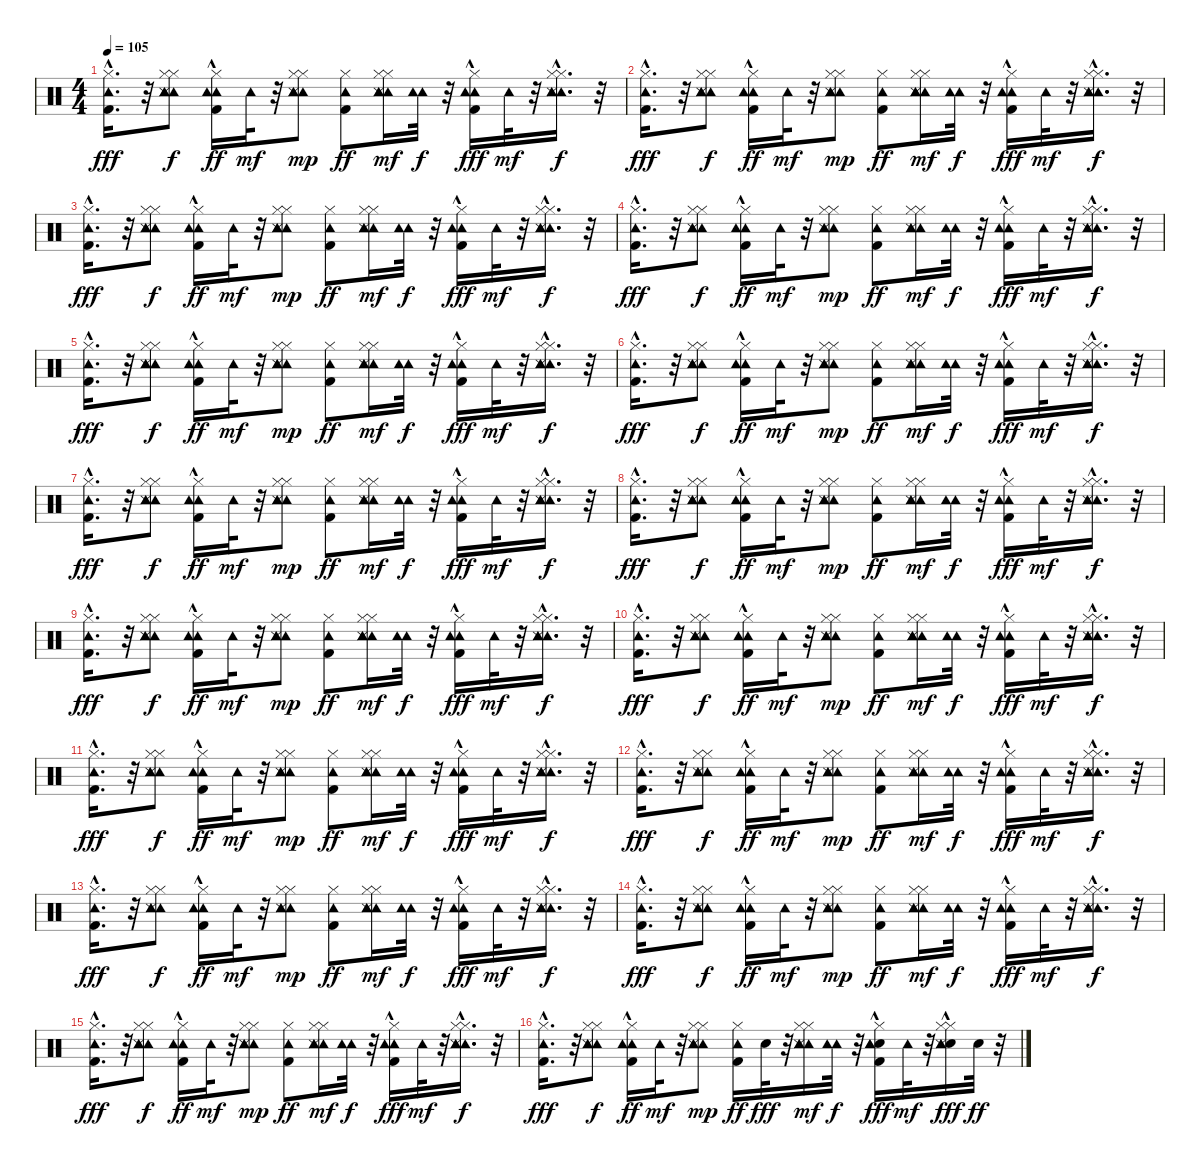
\track "" {instrument percussion}
\staff {score}
\articulation defaults
\ts (4 4)
\tempo 105
\clef neutral
\ks c
("Kick (hit) 2"{hac} "Hi-Hat (closed)" "Tambourine (hit)").16{d dy fff} r.32 ("Tambourine (hit)" "Tambourine (hit)" "Hi-Hat (closed)" "Tambourine (hit)" "Hi-Hat (closed)" "Snare (side stick) 3").8{dy f} ("Tambourine (hit)" "Tambourine (hit)" "Kick (hit) 2"{hac} "Hi-Hat (closed)").16{dy ff} "Tambourine (hit)".32{dy mf} r.32 ("Tambourine (hit)" "Tambourine (hit)" "Hi-Hat (closed)" "Tambourine (hit)" "Hi-Hat (closed)" "Snare (side stick) 3").8{dy mp} ("Tambourine (hit)" "Hi-Hat (closed)" "Kick (hit) 2").8{dy ff} ("Tambourine (hit)" "Tambourine (hit)" "Hi-Hat (closed)" "Hi-Hat (closed)" "Tambourine (hit)" "Snare (side stick) 3").16{dy mf} ("Tambourine (hit)" "Tambourine (hit)").32{dy f} r.32 ("Tambourine (hit)" "Tambourine (hit)" "Kick (hit) 2"{hac} "Hi-Hat (closed)").16{dy fff} "Tambourine (hit)".32{dy mf} r.32 ("Tambourine (hit)" "Hi-Hat (closed)"{hac} "Tambourine (hit)" "Hi-Hat (closed)"{hac} "Snare (side stick) 3" "Tambourine (hit)").16{d dy f} r.32 |
("Kick (hit) 2"{hac} "Hi-Hat (closed)" "Tambourine (hit)").16{d dy fff} r.32 ("Tambourine (hit)" "Tambourine (hit)" "Hi-Hat (closed)" "Tambourine (hit)" "Hi-Hat (closed)" "Snare (side stick) 3").8{dy f} ("Tambourine (hit)" "Tambourine (hit)" "Kick (hit) 2"{hac} "Hi-Hat (closed)").16{dy ff} "Tambourine (hit)".32{dy mf} r.32 ("Tambourine (hit)" "Tambourine (hit)" "Hi-Hat (closed)" "Tambourine (hit)" "Hi-Hat (closed)" "Snare (side stick) 3").8{dy mp} ("Tambourine (hit)" "Hi-Hat (closed)" "Kick (hit) 2").8{dy ff} ("Tambourine (hit)" "Tambourine (hit)" "Hi-Hat (closed)" "Hi-Hat (closed)" "Tambourine (hit)" "Snare (side stick) 3").16{dy mf} ("Tambourine (hit)" "Tambourine (hit)").32{dy f} r.32 ("Tambourine (hit)" "Tambourine (hit)" "Kick (hit) 2"{hac} "Hi-Hat (closed)").16{dy fff} "Tambourine (hit)".32{dy mf} r.32 ("Tambourine (hit)" "Hi-Hat (closed)"{hac} "Tambourine (hit)" "Hi-Hat (closed)"{hac} "Snare (side stick) 3" "Tambourine (hit)").16{d dy f} r.32 |
("Kick (hit) 2"{hac} "Hi-Hat (closed)" "Tambourine (hit)").16{d dy fff} r.32 ("Tambourine (hit)" "Tambourine (hit)" "Hi-Hat (closed)" "Tambourine (hit)" "Hi-Hat (closed)" "Snare (side stick) 3").8{dy f} ("Tambourine (hit)" "Tambourine (hit)" "Kick (hit) 2"{hac} "Hi-Hat (closed)").16{dy ff} "Tambourine (hit)".32{dy mf} r.32 ("Tambourine (hit)" "Tambourine (hit)" "Hi-Hat (closed)" "Tambourine (hit)" "Hi-Hat (closed)" "Snare (side stick) 3").8{dy mp} ("Tambourine (hit)" "Hi-Hat (closed)" "Kick (hit) 2").8{dy ff} ("Tambourine (hit)" "Tambourine (hit)" "Hi-Hat (closed)" "Hi-Hat (closed)" "Tambourine (hit)" "Snare (side stick) 3").16{dy mf} ("Tambourine (hit)" "Tambourine (hit)").32{dy f} r.32 ("Tambourine (hit)" "Tambourine (hit)" "Kick (hit) 2"{hac} "Hi-Hat (closed)").16{dy fff} "Tambourine (hit)".32{dy mf} r.32 ("Tambourine (hit)" "Hi-Hat (closed)"{hac} "Tambourine (hit)" "Hi-Hat (closed)"{hac} "Snare (side stick) 3" "Tambourine (hit)").16{d dy f} r.32 |
("Kick (hit) 2"{hac} "Hi-Hat (closed)" "Tambourine (hit)").16{d dy fff} r.32 ("Tambourine (hit)" "Tambourine (hit)" "Hi-Hat (closed)" "Tambourine (hit)" "Hi-Hat (closed)" "Snare (side stick) 3").8{dy f} ("Tambourine (hit)" "Tambourine (hit)" "Kick (hit) 2"{hac} "Hi-Hat (closed)").16{dy ff} "Tambourine (hit)".32{dy mf} r.32 ("Tambourine (hit)" "Tambourine (hit)" "Hi-Hat (closed)" "Tambourine (hit)" "Hi-Hat (closed)" "Snare (side stick) 3").8{dy mp} ("Tambourine (hit)" "Hi-Hat (closed)" "Kick (hit) 2").8{dy ff} ("Tambourine (hit)" "Tambourine (hit)" "Hi-Hat (closed)" "Hi-Hat (closed)" "Tambourine (hit)" "Snare (side stick) 3").16{dy mf} ("Tambourine (hit)" "Tambourine (hit)").32{dy f} r.32 ("Tambourine (hit)" "Tambourine (hit)" "Kick (hit) 2"{hac} "Hi-Hat (closed)").16{dy fff} "Tambourine (hit)".32{dy mf} r.32 ("Tambourine (hit)" "Hi-Hat (closed)"{hac} "Tambourine (hit)" "Hi-Hat (closed)"{hac} "Snare (side stick) 3" "Tambourine (hit)").16{d dy f} r.32 |
("Kick (hit) 2"{hac} "Hi-Hat (closed)" "Tambourine (hit)").16{d dy fff} r.32 ("Tambourine (hit)" "Tambourine (hit)" "Hi-Hat (closed)" "Tambourine (hit)" "Hi-Hat (closed)" "Snare (side stick) 3").8{dy f} ("Tambourine (hit)" "Tambourine (hit)" "Kick (hit) 2"{hac} "Hi-Hat (closed)").16{dy ff} "Tambourine (hit)".32{dy mf} r.32 ("Tambourine (hit)" "Tambourine (hit)" "Hi-Hat (closed)" "Tambourine (hit)" "Hi-Hat (closed)" "Snare (side stick) 3").8{dy mp} ("Tambourine (hit)" "Hi-Hat (closed)" "Kick (hit) 2").8{dy ff} ("Tambourine (hit)" "Tambourine (hit)" "Hi-Hat (closed)" "Hi-Hat (closed)" "Tambourine (hit)" "Snare (side stick) 3").16{dy mf} ("Tambourine (hit)" "Tambourine (hit)").32{dy f} r.32 ("Tambourine (hit)" "Tambourine (hit)" "Kick (hit) 2"{hac} "Hi-Hat (closed)").16{dy fff} "Tambourine (hit)".32{dy mf} r.32 ("Tambourine (hit)" "Hi-Hat (closed)"{hac} "Tambourine (hit)" "Hi-Hat (closed)"{hac} "Snare (side stick) 3" "Tambourine (hit)").16{d dy f} r.32 |
("Kick (hit) 2"{hac} "Hi-Hat (closed)" "Tambourine (hit)").16{d dy fff} r.32 ("Tambourine (hit)" "Tambourine (hit)" "Hi-Hat (closed)" "Tambourine (hit)" "Hi-Hat (closed)" "Snare (side stick) 3").8{dy f} ("Tambourine (hit)" "Tambourine (hit)" "Kick (hit) 2"{hac} "Hi-Hat (closed)").16{dy ff} "Tambourine (hit)".32{dy mf} r.32 ("Tambourine (hit)" "Tambourine (hit)" "Hi-Hat (closed)" "Tambourine (hit)" "Hi-Hat (closed)" "Snare (side stick) 3").8{dy mp} ("Tambourine (hit)" "Hi-Hat (closed)" "Kick (hit) 2").8{dy ff} ("Tambourine (hit)" "Tambourine (hit)" "Hi-Hat (closed)" "Hi-Hat (closed)" "Tambourine (hit)" "Snare (side stick) 3").16{dy mf} ("Tambourine (hit)" "Tambourine (hit)").32{dy f} r.32 ("Tambourine (hit)" "Tambourine (hit)" "Kick (hit) 2"{hac} "Hi-Hat (closed)").16{dy fff} "Tambourine (hit)".32{dy mf} r.32 ("Tambourine (hit)" "Hi-Hat (closed)"{hac} "Tambourine (hit)" "Hi-Hat (closed)"{hac} "Snare (side stick) 3" "Tambourine (hit)").16{d dy f} r.32 |
("Kick (hit) 2"{hac} "Hi-Hat (closed)" "Tambourine (hit)").16{d dy fff} r.32 ("Tambourine (hit)" "Tambourine (hit)" "Hi-Hat (closed)" "Tambourine (hit)" "Hi-Hat (closed)" "Snare (side stick) 3").8{dy f} ("Tambourine (hit)" "Tambourine (hit)" "Kick (hit) 2"{hac} "Hi-Hat (closed)").16{dy ff} "Tambourine (hit)".32{dy mf} r.32 ("Tambourine (hit)" "Tambourine (hit)" "Hi-Hat (closed)" "Tambourine (hit)" "Hi-Hat (closed)" "Snare (side stick) 3").8{dy mp} ("Tambourine (hit)" "Hi-Hat (closed)" "Kick (hit) 2").8{dy ff} ("Tambourine (hit)" "Tambourine (hit)" "Hi-Hat (closed)" "Hi-Hat (closed)" "Tambourine (hit)" "Snare (side stick) 3").16{dy mf} ("Tambourine (hit)" "Tambourine (hit)").32{dy f} r.32 ("Tambourine (hit)" "Tambourine (hit)" "Kick (hit) 2"{hac} "Hi-Hat (closed)").16{dy fff} "Tambourine (hit)".32{dy mf} r.32 ("Tambourine (hit)" "Hi-Hat (closed)"{hac} "Tambourine (hit)" "Hi-Hat (closed)"{hac} "Snare (side stick) 3" "Tambourine (hit)").16{d dy f} r.32 |
("Kick (hit) 2"{hac} "Hi-Hat (closed)" "Tambourine (hit)").16{d dy fff} r.32 ("Tambourine (hit)" "Tambourine (hit)" "Hi-Hat (closed)" "Tambourine (hit)" "Hi-Hat (closed)" "Snare (side stick) 3").8{dy f} ("Tambourine (hit)" "Tambourine (hit)" "Kick (hit) 2"{hac} "Hi-Hat (closed)").16{dy ff} "Tambourine (hit)".32{dy mf} r.32 ("Tambourine (hit)" "Tambourine (hit)" "Hi-Hat (closed)" "Tambourine (hit)" "Hi-Hat (closed)" "Snare (side stick) 3").8{dy mp} ("Tambourine (hit)" "Hi-Hat (closed)" "Kick (hit) 2").8{dy ff} ("Tambourine (hit)" "Tambourine (hit)" "Hi-Hat (closed)" "Hi-Hat (closed)" "Tambourine (hit)" "Snare (side stick) 3").16{dy mf} ("Tambourine (hit)" "Tambourine (hit)").32{dy f} r.32 ("Tambourine (hit)" "Tambourine (hit)" "Kick (hit) 2"{hac} "Hi-Hat (closed)").16{dy fff} "Tambourine (hit)".32{dy mf} r.32 ("Tambourine (hit)" "Hi-Hat (closed)"{hac} "Tambourine (hit)" "Hi-Hat (closed)"{hac} "Snare (side stick) 3" "Tambourine (hit)").16{d dy f} r.32 |
("Kick (hit) 2"{hac} "Hi-Hat (closed)" "Tambourine (hit)").16{d dy fff} r.32 ("Tambourine (hit)" "Tambourine (hit)" "Hi-Hat (closed)" "Tambourine (hit)" "Hi-Hat (closed)" "Snare (side stick) 3").8{dy f} ("Tambourine (hit)" "Tambourine (hit)" "Kick (hit) 2"{hac} "Hi-Hat (closed)").16{dy ff} "Tambourine (hit)".32{dy mf} r.32 ("Tambourine (hit)" "Tambourine (hit)" "Hi-Hat (closed)" "Tambourine (hit)" "Hi-Hat (closed)" "Snare (side stick) 3").8{dy mp} ("Tambourine (hit)" "Hi-Hat (closed)" "Kick (hit) 2").8{dy ff} ("Tambourine (hit)" "Tambourine (hit)" "Hi-Hat (closed)" "Hi-Hat (closed)" "Tambourine (hit)" "Snare (side stick) 3").16{dy mf} ("Tambourine (hit)" "Tambourine (hit)").32{dy f} r.32 ("Tambourine (hit)" "Tambourine (hit)" "Kick (hit) 2"{hac} "Hi-Hat (closed)").16{dy fff} "Tambourine (hit)".32{dy mf} r.32 ("Tambourine (hit)" "Hi-Hat (closed)"{hac} "Tambourine (hit)" "Hi-Hat (closed)"{hac} "Snare (side stick) 3" "Tambourine (hit)").16{d dy f} r.32 |
("Kick (hit) 2"{hac} "Hi-Hat (closed)" "Tambourine (hit)").16{d dy fff} r.32 ("Tambourine (hit)" "Tambourine (hit)" "Hi-Hat (closed)" "Tambourine (hit)" "Hi-Hat (closed)" "Snare (side stick) 3").8{dy f} ("Tambourine (hit)" "Tambourine (hit)" "Kick (hit) 2"{hac} "Hi-Hat (closed)").16{dy ff} "Tambourine (hit)".32{dy mf} r.32 ("Tambourine (hit)" "Tambourine (hit)" "Hi-Hat (closed)" "Tambourine (hit)" "Hi-Hat (closed)" "Snare (side stick) 3").8{dy mp} ("Tambourine (hit)" "Hi-Hat (closed)" "Kick (hit) 2").8{dy ff} ("Tambourine (hit)" "Tambourine (hit)" "Hi-Hat (closed)" "Hi-Hat (closed)" "Tambourine (hit)" "Snare (side stick) 3").16{dy mf} ("Tambourine (hit)" "Tambourine (hit)").32{dy f} r.32 ("Tambourine (hit)" "Tambourine (hit)" "Kick (hit) 2"{hac} "Hi-Hat (closed)").16{dy fff} "Tambourine (hit)".32{dy mf} r.32 ("Tambourine (hit)" "Hi-Hat (closed)"{hac} "Tambourine (hit)" "Hi-Hat (closed)"{hac} "Snare (side stick) 3" "Tambourine (hit)").16{d dy f} r.32 |
("Kick (hit) 2"{hac} "Hi-Hat (closed)" "Tambourine (hit)").16{d dy fff} r.32 ("Tambourine (hit)" "Tambourine (hit)" "Hi-Hat (closed)" "Tambourine (hit)" "Hi-Hat (closed)" "Snare (side stick) 3").8{dy f} ("Tambourine (hit)" "Tambourine (hit)" "Kick (hit) 2"{hac} "Hi-Hat (closed)").16{dy ff} "Tambourine (hit)".32{dy mf} r.32 ("Tambourine (hit)" "Tambourine (hit)" "Hi-Hat (closed)" "Tambourine (hit)" "Hi-Hat (closed)" "Snare (side stick) 3").8{dy mp} ("Tambourine (hit)" "Hi-Hat (closed)" "Kick (hit) 2").8{dy ff} ("Tambourine (hit)" "Tambourine (hit)" "Hi-Hat (closed)" "Hi-Hat (closed)" "Tambourine (hit)" "Snare (side stick) 3").16{dy mf} ("Tambourine (hit)" "Tambourine (hit)").32{dy f} r.32 ("Tambourine (hit)" "Tambourine (hit)" "Kick (hit) 2"{hac} "Hi-Hat (closed)").16{dy fff} "Tambourine (hit)".32{dy mf} r.32 ("Tambourine (hit)" "Hi-Hat (closed)"{hac} "Tambourine (hit)" "Hi-Hat (closed)"{hac} "Snare (side stick) 3" "Tambourine (hit)").16{d dy f} r.32 |
("Kick (hit) 2"{hac} "Hi-Hat (closed)" "Tambourine (hit)").16{d dy fff} r.32 ("Tambourine (hit)" "Tambourine (hit)" "Hi-Hat (closed)" "Tambourine (hit)" "Hi-Hat (closed)" "Snare (side stick) 3").8{dy f} ("Tambourine (hit)" "Tambourine (hit)" "Kick (hit) 2"{hac} "Hi-Hat (closed)").16{dy ff} "Tambourine (hit)".32{dy mf} r.32 ("Tambourine (hit)" "Tambourine (hit)" "Hi-Hat (closed)" "Tambourine (hit)" "Hi-Hat (closed)" "Snare (side stick) 3").8{dy mp} ("Tambourine (hit)" "Hi-Hat (closed)" "Kick (hit) 2").8{dy ff} ("Tambourine (hit)" "Tambourine (hit)" "Hi-Hat (closed)" "Hi-Hat (closed)" "Tambourine (hit)" "Snare (side stick) 3").16{dy mf} ("Tambourine (hit)" "Tambourine (hit)").32{dy f} r.32 ("Tambourine (hit)" "Tambourine (hit)" "Kick (hit) 2"{hac} "Hi-Hat (closed)").16{dy fff} "Tambourine (hit)".32{dy mf} r.32 ("Tambourine (hit)" "Hi-Hat (closed)"{hac} "Tambourine (hit)" "Hi-Hat (closed)"{hac} "Snare (side stick) 3" "Tambourine (hit)").16{d dy f} r.32 |
("Kick (hit) 2"{hac} "Hi-Hat (closed)" "Tambourine (hit)").16{d dy fff} r.32 ("Tambourine (hit)" "Tambourine (hit)" "Hi-Hat (closed)" "Tambourine (hit)" "Hi-Hat (closed)" "Snare (side stick) 3").8{dy f} ("Tambourine (hit)" "Tambourine (hit)" "Kick (hit) 2"{hac} "Hi-Hat (closed)").16{dy ff} "Tambourine (hit)".32{dy mf} r.32 ("Tambourine (hit)" "Tambourine (hit)" "Hi-Hat (closed)" "Tambourine (hit)" "Hi-Hat (closed)" "Snare (side stick) 3").8{dy mp} ("Tambourine (hit)" "Hi-Hat (closed)" "Kick (hit) 2").8{dy ff} ("Tambourine (hit)" "Tambourine (hit)" "Hi-Hat (closed)" "Hi-Hat (closed)" "Tambourine (hit)" "Snare (side stick) 3").16{dy mf} ("Tambourine (hit)" "Tambourine (hit)").32{dy f} r.32 ("Tambourine (hit)" "Tambourine (hit)" "Kick (hit) 2"{hac} "Hi-Hat (closed)").16{dy fff} "Tambourine (hit)".32{dy mf} r.32 ("Tambourine (hit)" "Hi-Hat (closed)"{hac} "Tambourine (hit)" "Hi-Hat (closed)"{hac} "Snare (side stick) 3" "Tambourine (hit)").16{d dy f} r.32 |
("Kick (hit) 2"{hac} "Hi-Hat (closed)" "Tambourine (hit)").16{d dy fff} r.32 ("Tambourine (hit)" "Tambourine (hit)" "Hi-Hat (closed)" "Tambourine (hit)" "Hi-Hat (closed)" "Snare (side stick) 3").8{dy f} ("Tambourine (hit)" "Tambourine (hit)" "Kick (hit) 2"{hac} "Hi-Hat (closed)").16{dy ff} "Tambourine (hit)".32{dy mf} r.32 ("Tambourine (hit)" "Tambourine (hit)" "Hi-Hat (closed)" "Tambourine (hit)" "Hi-Hat (closed)" "Snare (side stick) 3").8{dy mp} ("Tambourine (hit)" "Hi-Hat (closed)" "Kick (hit) 2").8{dy ff} ("Tambourine (hit)" "Tambourine (hit)" "Hi-Hat (closed)" "Hi-Hat (closed)" "Tambourine (hit)" "Snare (side stick) 3").16{dy mf} ("Tambourine (hit)" "Tambourine (hit)").32{dy f} r.32 ("Tambourine (hit)" "Tambourine (hit)" "Kick (hit) 2"{hac} "Hi-Hat (closed)").16{dy fff} "Tambourine (hit)".32{dy mf} r.32 ("Tambourine (hit)" "Hi-Hat (closed)"{hac} "Tambourine (hit)" "Hi-Hat (closed)"{hac} "Snare (side stick) 3" "Tambourine (hit)").16{d dy f} r.32 |
("Kick (hit) 2"{hac} "Hi-Hat (closed)" "Tambourine (hit)").16{d dy fff} r.32 ("Tambourine (hit)" "Tambourine (hit)" "Hi-Hat (closed)" "Tambourine (hit)" "Hi-Hat (closed)" "Snare (side stick) 3").8{dy f} ("Tambourine (hit)" "Tambourine (hit)" "Kick (hit) 2"{hac} "Hi-Hat (closed)").16{dy ff} "Tambourine (hit)".32{dy mf} r.32 ("Tambourine (hit)" "Tambourine (hit)" "Hi-Hat (closed)" "Tambourine (hit)" "Hi-Hat (closed)" "Snare (side stick) 3").8{dy mp} ("Tambourine (hit)" "Hi-Hat (closed)" "Kick (hit) 2").8{dy ff} ("Tambourine (hit)" "Tambourine (hit)" "Hi-Hat (closed)" "Hi-Hat (closed)" "Tambourine (hit)" "Snare (side stick) 3").16{dy mf} ("Tambourine (hit)" "Tambourine (hit)").32{dy f} r.32 ("Tambourine (hit)" "Tambourine (hit)" "Kick (hit) 2"{hac} "Hi-Hat (closed)").16{dy fff} "Tambourine (hit)".32{dy mf} r.32 ("Tambourine (hit)" "Hi-Hat (closed)"{hac} "Tambourine (hit)" "Hi-Hat (closed)"{hac} "Snare (side stick) 3" "Tambourine (hit)").16{d dy f} r.32 |
("Kick (hit) 2"{hac} "Hi-Hat (closed)" "Tambourine (hit)").16{d dy fff} r.32 ("Tambourine (hit)" "Tambourine (hit)" "Hi-Hat (closed)" "Tambourine (hit)" "Hi-Hat (closed)" "Snare (side stick) 3").8{dy f} ("Tambourine (hit)" "Tambourine (hit)" "Kick (hit) 2"{hac} "Hi-Hat (closed)").16{dy ff} "Tambourine (hit)".32{dy mf} r.32 ("Tambourine (hit)" "Tambourine (hit)" "Hi-Hat (closed)" "Tambourine (hit)" "Hi-Hat (closed)" "Snare (side stick) 3").8{dy mp} ("Tambourine (hit)" "Hi-Hat (closed)" "Kick (hit) 2").16{dy ff} "Snare (hit) 2".32{dy fff} r.32 ("Tambourine (hit)" "Tambourine (hit)" "Hi-Hat (closed)" "Hi-Hat (closed)" "Tambourine (hit)" "Snare (side stick) 3").16{dy mf} ("Tambourine (hit)" "Tambourine (hit)").32{dy f} r.32 ("Snare (hit) 2" "Tambourine (hit)" "Tambourine (hit)" "Kick (hit) 2"{hac} "Hi-Hat (closed)").16{dy fff} "Tambourine (hit)".32{dy mf} r.32 ("Snare (hit) 2" "Tambourine (hit)" "Hi-Hat (closed)"{hac} "Tambourine (hit)" "Hi-Hat (closed)"{hac} "Snare (side stick) 3").16{dy fff} "Snare (hit) 2".32{dy ff} r.32
